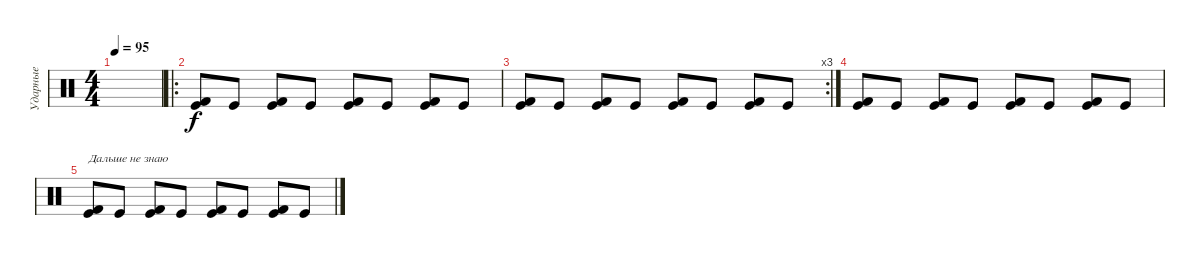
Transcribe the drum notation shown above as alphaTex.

\track ("Ударные" "Ударные") {instrument percussion}
\staff {score}
\articulation defaults
\ts (4 4)
\tempo 95
\clef neutral
\ks c
|
\ro
("Kick (hit)" "Kick (hit) 2").8 "Kick (hit)".8 ("Kick (hit)" "Kick (hit) 2").8 "Kick (hit)".8 ("Kick (hit)" "Kick (hit) 2").8 "Kick (hit)".8 ("Kick (hit)" "Kick (hit) 2").8 "Kick (hit)".8 |
\rc 3
("Kick (hit)" "Kick (hit) 2").8 "Kick (hit)".8 ("Kick (hit)" "Kick (hit) 2").8 "Kick (hit)".8 ("Kick (hit)" "Kick (hit) 2").8 "Kick (hit)".8 ("Kick (hit)" "Kick (hit) 2").8 "Kick (hit)".8 |
("Kick (hit)" "Kick (hit) 2").8 "Kick (hit)".8 ("Kick (hit)" "Kick (hit) 2").8 "Kick (hit)".8 ("Kick (hit)" "Kick (hit) 2").8 "Kick (hit)".8 ("Kick (hit)" "Kick (hit) 2").8 "Kick (hit)".8 |
("Kick (hit)" "Kick (hit) 2").8{txt "Дальше не знаю"} "Kick (hit)".8 ("Kick (hit)" "Kick (hit) 2").8 "Kick (hit)".8 ("Kick (hit)" "Kick (hit) 2").8 "Kick (hit)".8 ("Kick (hit)" "Kick (hit) 2").8 "Kick (hit)".8
